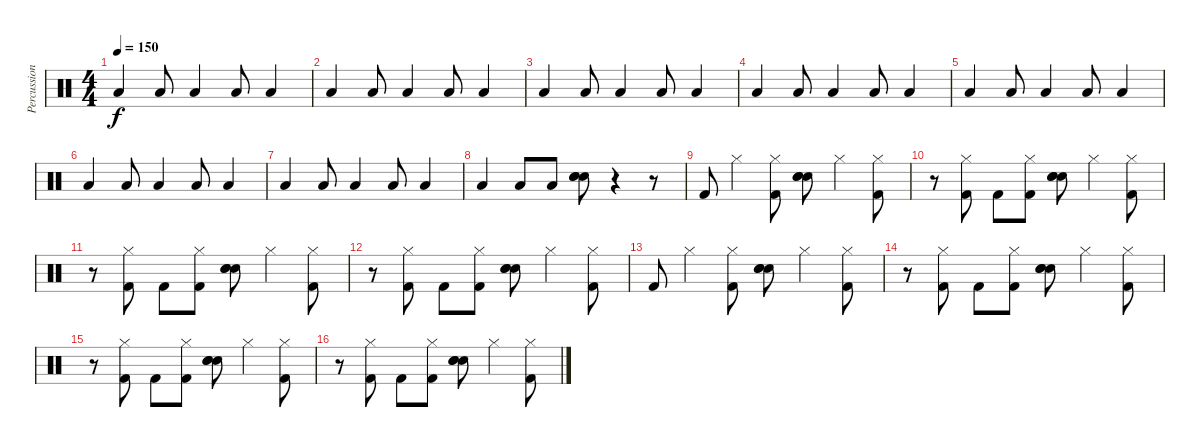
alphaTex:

\track ("Percussion" "Percussion") {instrument percussion}
\staff {score}
\articulation defaults
\ts (4 4)
\tempo 150
\clef neutral
\ks c "Low Floor Tom (hit)".4{dy f} "Low Floor Tom (hit)".8 "Low Floor Tom (hit)".4 "Low Floor Tom (hit)".8 "Low Floor Tom (hit)".4
|
"Low Floor Tom (hit)".4 "Low Floor Tom (hit)".8 "Low Floor Tom (hit)".4 "Low Floor Tom (hit)".8 "Low Floor Tom (hit)".4 |
"Low Floor Tom (hit)".4 "Low Floor Tom (hit)".8 "Low Floor Tom (hit)".4 "Low Floor Tom (hit)".8 "Low Floor Tom (hit)".4 |
"Low Floor Tom (hit)".4 "Low Floor Tom (hit)".8 "Low Floor Tom (hit)".4 "Low Floor Tom (hit)".8 "Low Floor Tom (hit)".4 |
"Low Floor Tom (hit)".4 "Low Floor Tom (hit)".8 "Low Floor Tom (hit)".4 "Low Floor Tom (hit)".8 "Low Floor Tom (hit)".4 |
"Low Floor Tom (hit)".4 "Low Floor Tom (hit)".8 "Low Floor Tom (hit)".4 "Low Floor Tom (hit)".8 "Low Floor Tom (hit)".4 |
"Low Floor Tom (hit)".4 "Low Floor Tom (hit)".8 "Low Floor Tom (hit)".4 "Low Floor Tom (hit)".8 "Low Floor Tom (hit)".4 |
"Low Floor Tom (hit)".4 "Low Floor Tom (hit)".8 "Low Floor Tom (hit)".8 ("Hand Clap (hit)" "Electric Snare (hit)" "Snare (hit) 2").8 r.4 r.8 |
"Kick (hit) 2".8 "Hi-Hat (closed)".4 ("Hi-Hat (closed)" "Kick (hit) 2").8 ("Hand Clap (hit)" "Electric Snare (hit)" "Snare (hit) 2").8 "Hi-Hat (closed)".4 ("Hi-Hat (closed)" "Kick (hit) 2").8 |
r.8 ("Hi-Hat (closed)" "Kick (hit) 2").8 "Kick (hit) 2".8 ("Hi-Hat (closed)" "Kick (hit) 2").8 ("Hand Clap (hit)" "Electric Snare (hit)" "Snare (hit) 2").8 "Hi-Hat (closed)".4 ("Hi-Hat (closed)" "Kick (hit) 2").8 |
r.8 ("Hi-Hat (closed)" "Kick (hit) 2").8 "Kick (hit) 2".8 ("Hi-Hat (closed)" "Kick (hit) 2").8 ("Hand Clap (hit)" "Electric Snare (hit)" "Snare (hit) 2").8 "Hi-Hat (closed)".4 ("Hi-Hat (closed)" "Kick (hit) 2").8 |
r.8 ("Hi-Hat (closed)" "Kick (hit) 2").8 "Kick (hit) 2".8 ("Hi-Hat (closed)" "Kick (hit) 2").8 ("Hand Clap (hit)" "Electric Snare (hit)" "Snare (hit) 2").8 "Hi-Hat (closed)".4 ("Hi-Hat (closed)" "Kick (hit) 2").8 |
"Kick (hit) 2".8 "Hi-Hat (closed)".4 ("Hi-Hat (closed)" "Kick (hit) 2").8 ("Hand Clap (hit)" "Electric Snare (hit)" "Snare (hit) 2").8 "Hi-Hat (closed)".4 ("Hi-Hat (closed)" "Kick (hit) 2").8 |
r.8 ("Hi-Hat (closed)" "Kick (hit) 2").8 "Kick (hit) 2".8 ("Hi-Hat (closed)" "Kick (hit) 2").8 ("Hand Clap (hit)" "Electric Snare (hit)" "Snare (hit) 2").8 "Hi-Hat (closed)".4 ("Hi-Hat (closed)" "Kick (hit) 2").8 |
r.8 ("Hi-Hat (closed)" "Kick (hit) 2").8 "Kick (hit) 2".8 ("Hi-Hat (closed)" "Kick (hit) 2").8 ("Hand Clap (hit)" "Electric Snare (hit)" "Snare (hit) 2").8 "Hi-Hat (closed)".4 ("Hi-Hat (closed)" "Kick (hit) 2").8 |
r.8 ("Hi-Hat (closed)" "Kick (hit) 2").8 "Kick (hit) 2".8 ("Hi-Hat (closed)" "Kick (hit) 2").8 ("Hand Clap (hit)" "Electric Snare (hit)" "Snare (hit) 2").8 "Hi-Hat (closed)".4 ("Hi-Hat (closed)" "Kick (hit) 2").8
